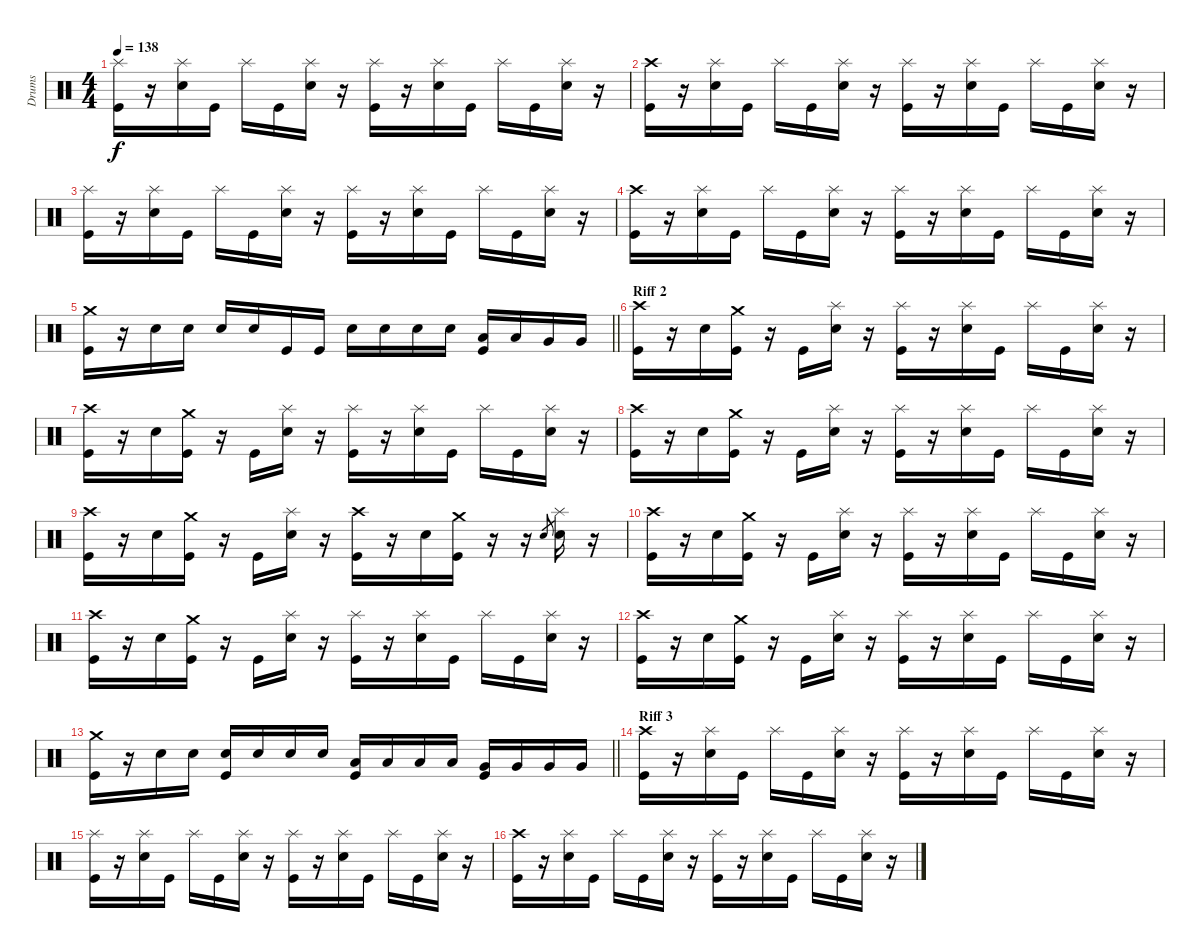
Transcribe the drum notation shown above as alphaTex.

\track ("Drums" "Drums") {instrument percussion}
\staff {score}
\articulation defaults
\ts (4 4)
\tempo 138
\clef neutral
\ks c
("Splash (hit)" "Kick (hit)").16{dy f} r.16 ("Splash (hit)" "Electric Snare (hit)").16 "Kick (hit)".16 "Splash (hit)".16 "Kick (hit)".16 ("Splash (hit)" "Electric Snare (hit)").16 r.16 ("Splash (hit)" "Kick (hit)").16 r.16 ("Splash (hit)" "Electric Snare (hit)").16 "Kick (hit)".16 "Splash (hit)".16 "Kick (hit)".16 ("Splash (hit)" "Electric Snare (hit)").16 r.16 |
("Crash high (hit)" "Kick (hit)").16 r.16 ("Splash (hit)" "Electric Snare (hit)").16 "Kick (hit)".16 "Splash (hit)".16 "Kick (hit)".16 ("Splash (hit)" "Electric Snare (hit)").16 r.16 ("Splash (hit)" "Kick (hit)").16 r.16 ("Splash (hit)" "Electric Snare (hit)").16 "Kick (hit)".16 "Splash (hit)".16 "Kick (hit)".16 ("Splash (hit)" "Electric Snare (hit)").16 r.16 |
("Splash (hit)" "Kick (hit)").16 r.16 ("Splash (hit)" "Electric Snare (hit)").16 "Kick (hit)".16 "Splash (hit)".16 "Kick (hit)".16 ("Splash (hit)" "Electric Snare (hit)").16 r.16 ("Splash (hit)" "Kick (hit)").16 r.16 ("Splash (hit)" "Electric Snare (hit)").16 "Kick (hit)".16 "Splash (hit)".16 "Kick (hit)".16 ("Splash (hit)" "Electric Snare (hit)").16 r.16 |
("Crash high (hit)" "Kick (hit)").16 r.16 ("Splash (hit)" "Electric Snare (hit)").16 "Kick (hit)".16 "Splash (hit)".16 "Kick (hit)".16 ("Splash (hit)" "Electric Snare (hit)").16 r.16 ("Splash (hit)" "Kick (hit)").16 r.16 ("Splash (hit)" "Electric Snare (hit)").16 "Kick (hit)".16 "Splash (hit)".16 "Kick (hit)".16 ("Splash (hit)" "Electric Snare (hit)").16 r.16 |
\barLineRight lightlight
("Crash medium (hit)" "Kick (hit)").16 r.16 "Electric Snare (hit)".16 "Electric Snare (hit)".16 "Electric Snare (hit)".16 "Electric Snare (hit)".16 "Kick (hit)".16 "Kick (hit)".16 "Electric Snare (hit)".16 "Electric Snare (hit)".16 "Electric Snare (hit)".16 "Electric Snare (hit)".16 ("Low Tom (hit)" "Kick (hit)").16 "Low Tom (hit)".16 "Very Low Tom (hit)".16 "Very Low Tom (hit)".16 |
\section ("" "Riff 2")
("Crash high (hit)" "Kick (hit)").16 r.16 "Electric Snare (hit)".16 ("Crash medium (hit)" "Kick (hit)").16 r.16 "Kick (hit)".16 ("Splash (hit)" "Electric Snare (hit)").16 r.16 ("Splash (hit)" "Kick (hit)").16 r.16 ("Splash (hit)" "Electric Snare (hit)").16 "Kick (hit)".16 "Splash (hit)".16 "Kick (hit)".16 ("Splash (hit)" "Electric Snare (hit)").16 r.16 |
("Crash high (hit)" "Kick (hit)").16 r.16 "Electric Snare (hit)".16 ("Crash medium (hit)" "Kick (hit)").16 r.16 "Kick (hit)".16 ("Splash (hit)" "Electric Snare (hit)").16 r.16 ("Splash (hit)" "Kick (hit)").16 r.16 ("Splash (hit)" "Electric Snare (hit)").16 "Kick (hit)".16 "Splash (hit)".16 "Kick (hit)".16 ("Splash (hit)" "Electric Snare (hit)").16 r.16 |
("Crash high (hit)" "Kick (hit)").16 r.16 "Electric Snare (hit)".16 ("Crash medium (hit)" "Kick (hit)").16 r.16 "Kick (hit)".16 ("Splash (hit)" "Electric Snare (hit)").16 r.16 ("Splash (hit)" "Kick (hit)").16 r.16 ("Splash (hit)" "Electric Snare (hit)").16 "Kick (hit)".16 "Splash (hit)".16 "Kick (hit)".16 ("Splash (hit)" "Electric Snare (hit)").16 r.16 |
("Crash high (hit)" "Kick (hit)").16 r.16 "Electric Snare (hit)".16 ("Crash medium (hit)" "Kick (hit)").16 r.16 "Kick (hit)".16 ("Splash (hit)" "Electric Snare (hit)").16 r.16 ("Crash high (hit)" "Kick (hit)").16 r.16 "Electric Snare (hit)".16 ("Crash medium (hit)" "Kick (hit)").16 r.16 r.16 "Electric Snare (hit)".8{gr} ("Splash (hit)" "Electric Snare (hit)").16 r.16 |
("Crash high (hit)" "Kick (hit)").16 r.16 "Electric Snare (hit)".16 ("Crash medium (hit)" "Kick (hit)").16 r.16 "Kick (hit)".16 ("Splash (hit)" "Electric Snare (hit)").16 r.16 ("Splash (hit)" "Kick (hit)").16 r.16 ("Splash (hit)" "Electric Snare (hit)").16 "Kick (hit)".16 "Splash (hit)".16 "Kick (hit)".16 ("Splash (hit)" "Electric Snare (hit)").16 r.16 |
("Crash high (hit)" "Kick (hit)").16 r.16 "Electric Snare (hit)".16 ("Crash medium (hit)" "Kick (hit)").16 r.16 "Kick (hit)".16 ("Splash (hit)" "Electric Snare (hit)").16 r.16 ("Splash (hit)" "Kick (hit)").16 r.16 ("Splash (hit)" "Electric Snare (hit)").16 "Kick (hit)".16 "Splash (hit)".16 "Kick (hit)".16 ("Splash (hit)" "Electric Snare (hit)").16 r.16 |
("Crash high (hit)" "Kick (hit)").16 r.16 "Electric Snare (hit)".16 ("Crash medium (hit)" "Kick (hit)").16 r.16 "Kick (hit)".16 ("Splash (hit)" "Electric Snare (hit)").16 r.16 ("Splash (hit)" "Kick (hit)").16 r.16 ("Splash (hit)" "Electric Snare (hit)").16 "Kick (hit)".16 "Splash (hit)".16 "Kick (hit)".16 ("Splash (hit)" "Electric Snare (hit)").16 r.16 |
\barLineRight lightlight
("Crash medium (hit)" "Kick (hit)").16 r.16 "Electric Snare (hit)".16 "Electric Snare (hit)".16 ("Electric Snare (hit)" "Kick (hit)").16 "Electric Snare (hit)".16 "Electric Snare (hit)".16 "Electric Snare (hit)".16 ("Low Tom (hit)" "Kick (hit)").16 "Low Tom (hit)".16 "Low Tom (hit)".16 "Low Tom (hit)".16 ("Very Low Tom (hit)" "Kick (hit)").16 "Very Low Tom (hit)".16 "Very Low Tom (hit)".16 "Very Low Tom (hit)".16 |
\section ("" "Riff 3")
("Crash high (hit)" "Kick (hit)").16 r.16 ("Splash (hit)" "Electric Snare (hit)").16 "Kick (hit)".16 "Splash (hit)".16 "Kick (hit)".16 ("Splash (hit)" "Electric Snare (hit)").16 r.16 ("Splash (hit)" "Kick (hit)").16 r.16 ("Splash (hit)" "Electric Snare (hit)").16 "Kick (hit)".16 "Splash (hit)".16 "Kick (hit)".16 ("Splash (hit)" "Electric Snare (hit)").16 r.16 |
("Splash (hit)" "Kick (hit)").16 r.16 ("Splash (hit)" "Electric Snare (hit)").16 "Kick (hit)".16 "Splash (hit)".16 "Kick (hit)".16 ("Splash (hit)" "Electric Snare (hit)").16 r.16 ("Splash (hit)" "Kick (hit)").16 r.16 ("Splash (hit)" "Electric Snare (hit)").16 "Kick (hit)".16 "Splash (hit)".16 "Kick (hit)".16 ("Splash (hit)" "Electric Snare (hit)").16 r.16 |
("Crash high (hit)" "Kick (hit)").16 r.16 ("Splash (hit)" "Electric Snare (hit)").16 "Kick (hit)".16 "Splash (hit)".16 "Kick (hit)".16 ("Splash (hit)" "Electric Snare (hit)").16 r.16 ("Splash (hit)" "Kick (hit)").16 r.16 ("Splash (hit)" "Electric Snare (hit)").16 "Kick (hit)".16 "Splash (hit)".16 "Kick (hit)".16 ("Splash (hit)" "Electric Snare (hit)").16 r.16
